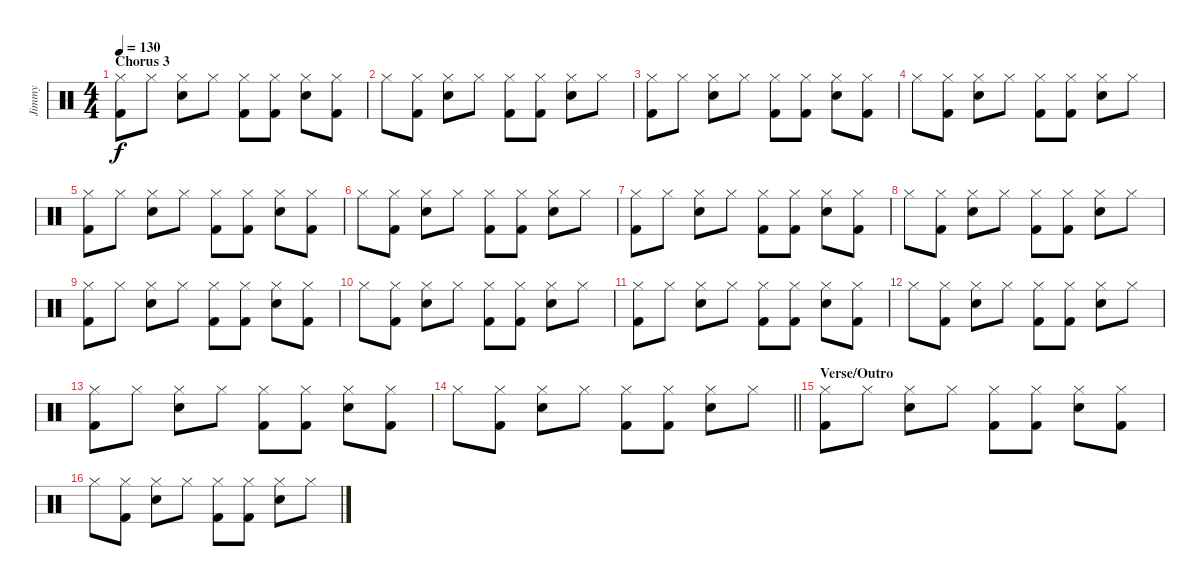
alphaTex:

\track ("Jimmy" "Jimmy") {instrument percussion}
\staff {score}
\articulation defaults
\ts (4 4)
\section ("" "Chorus 3")
\tempo 130
\clef neutral
\ks c
("Hi-Hat (closed)" "Kick (hit) 2").8{dy f} "Hi-Hat (closed)".8 ("Hi-Hat (closed)" "Electric Snare (hit)").8 "Hi-Hat (closed)".8 ("Hi-Hat (closed)" "Kick (hit) 2").8 ("Hi-Hat (closed)" "Kick (hit) 2").8 ("Hi-Hat (closed)" "Electric Snare (hit)").8 ("Hi-Hat (closed)" "Kick (hit) 2").8 |
"Hi-Hat (closed)".8 ("Hi-Hat (closed)" "Kick (hit) 2").8 ("Hi-Hat (closed)" "Electric Snare (hit)").8 "Hi-Hat (closed)".8 ("Hi-Hat (closed)" "Kick (hit) 2").8 ("Hi-Hat (closed)" "Kick (hit) 2").8 ("Hi-Hat (closed)" "Electric Snare (hit)").8 "Hi-Hat (closed)".8 |
("Hi-Hat (closed)" "Kick (hit) 2").8 "Hi-Hat (closed)".8 ("Hi-Hat (closed)" "Electric Snare (hit)").8 "Hi-Hat (closed)".8 ("Hi-Hat (closed)" "Kick (hit) 2").8 ("Hi-Hat (closed)" "Kick (hit) 2").8 ("Hi-Hat (closed)" "Electric Snare (hit)").8 ("Hi-Hat (closed)" "Kick (hit) 2").8 |
"Hi-Hat (closed)".8 ("Hi-Hat (closed)" "Kick (hit) 2").8 ("Hi-Hat (closed)" "Electric Snare (hit)").8 "Hi-Hat (closed)".8 ("Hi-Hat (closed)" "Kick (hit) 2").8 ("Hi-Hat (closed)" "Kick (hit) 2").8 ("Hi-Hat (closed)" "Electric Snare (hit)").8 "Hi-Hat (closed)".8 |
("Hi-Hat (closed)" "Kick (hit) 2").8 "Hi-Hat (closed)".8 ("Hi-Hat (closed)" "Electric Snare (hit)").8 "Hi-Hat (closed)".8 ("Hi-Hat (closed)" "Kick (hit) 2").8 ("Hi-Hat (closed)" "Kick (hit) 2").8 ("Hi-Hat (closed)" "Electric Snare (hit)").8 ("Hi-Hat (closed)" "Kick (hit) 2").8 |
"Hi-Hat (closed)".8 ("Hi-Hat (closed)" "Kick (hit) 2").8 ("Hi-Hat (closed)" "Electric Snare (hit)").8 "Hi-Hat (closed)".8 ("Hi-Hat (closed)" "Kick (hit) 2").8 ("Hi-Hat (closed)" "Kick (hit) 2").8 ("Hi-Hat (closed)" "Electric Snare (hit)").8 "Hi-Hat (closed)".8 |
("Hi-Hat (closed)" "Kick (hit) 2").8 "Hi-Hat (closed)".8 ("Hi-Hat (closed)" "Electric Snare (hit)").8 "Hi-Hat (closed)".8 ("Hi-Hat (closed)" "Kick (hit) 2").8 ("Hi-Hat (closed)" "Kick (hit) 2").8 ("Hi-Hat (closed)" "Electric Snare (hit)").8 ("Hi-Hat (closed)" "Kick (hit) 2").8 |
"Hi-Hat (closed)".8 ("Hi-Hat (closed)" "Kick (hit) 2").8 ("Hi-Hat (closed)" "Electric Snare (hit)").8 "Hi-Hat (closed)".8 ("Hi-Hat (closed)" "Kick (hit) 2").8 ("Hi-Hat (closed)" "Kick (hit) 2").8 ("Hi-Hat (closed)" "Electric Snare (hit)").8 "Hi-Hat (closed)".8 |
("Hi-Hat (closed)" "Kick (hit) 2").8 "Hi-Hat (closed)".8 ("Hi-Hat (closed)" "Electric Snare (hit)").8 "Hi-Hat (closed)".8 ("Hi-Hat (closed)" "Kick (hit) 2").8 ("Hi-Hat (closed)" "Kick (hit) 2").8 ("Hi-Hat (closed)" "Electric Snare (hit)").8 ("Hi-Hat (closed)" "Kick (hit) 2").8 |
"Hi-Hat (closed)".8 ("Hi-Hat (closed)" "Kick (hit) 2").8 ("Hi-Hat (closed)" "Electric Snare (hit)").8 "Hi-Hat (closed)".8 ("Hi-Hat (closed)" "Kick (hit) 2").8 ("Hi-Hat (closed)" "Kick (hit) 2").8 ("Hi-Hat (closed)" "Electric Snare (hit)").8 "Hi-Hat (closed)".8 |
("Hi-Hat (closed)" "Kick (hit) 2").8 "Hi-Hat (closed)".8 ("Hi-Hat (closed)" "Electric Snare (hit)").8 "Hi-Hat (closed)".8 ("Hi-Hat (closed)" "Kick (hit) 2").8 ("Hi-Hat (closed)" "Kick (hit) 2").8 ("Hi-Hat (closed)" "Electric Snare (hit)").8 ("Hi-Hat (closed)" "Kick (hit) 2").8 |
"Hi-Hat (closed)".8 ("Hi-Hat (closed)" "Kick (hit) 2").8 ("Hi-Hat (closed)" "Electric Snare (hit)").8 "Hi-Hat (closed)".8 ("Hi-Hat (closed)" "Kick (hit) 2").8 ("Hi-Hat (closed)" "Kick (hit) 2").8 ("Hi-Hat (closed)" "Electric Snare (hit)").8 "Hi-Hat (closed)".8 |
("Hi-Hat (closed)" "Kick (hit) 2").8 "Hi-Hat (closed)".8 ("Hi-Hat (closed)" "Electric Snare (hit)").8 "Hi-Hat (closed)".8 ("Hi-Hat (closed)" "Kick (hit) 2").8 ("Hi-Hat (closed)" "Kick (hit) 2").8 ("Hi-Hat (closed)" "Electric Snare (hit)").8 ("Hi-Hat (closed)" "Kick (hit) 2").8 |
\barLineRight lightlight "Hi-Hat (closed)".8
("Hi-Hat (closed)" "Kick (hit) 2").8 ("Hi-Hat (closed)" "Electric Snare (hit)").8 "Hi-Hat (closed)".8 ("Hi-Hat (closed)" "Kick (hit) 2").8 ("Hi-Hat (closed)" "Kick (hit) 2").8 ("Hi-Hat (closed)" "Electric Snare (hit)").8 "Hi-Hat (closed)".8 |
\section ("" "Verse/Outro")
("Hi-Hat (closed)" "Kick (hit) 2").8 "Hi-Hat (closed)".8 ("Hi-Hat (closed)" "Electric Snare (hit)").8 "Hi-Hat (closed)".8 ("Hi-Hat (closed)" "Kick (hit) 2").8 ("Hi-Hat (closed)" "Kick (hit) 2").8 ("Hi-Hat (closed)" "Electric Snare (hit)").8 ("Hi-Hat (closed)" "Kick (hit) 2").8 |
"Hi-Hat (closed)".8 ("Hi-Hat (closed)" "Kick (hit) 2").8 ("Hi-Hat (closed)" "Electric Snare (hit)").8 "Hi-Hat (closed)".8 ("Hi-Hat (closed)" "Kick (hit) 2").8 ("Hi-Hat (closed)" "Kick (hit) 2").8 ("Hi-Hat (closed)" "Electric Snare (hit)").8 "Hi-Hat (closed)".8
